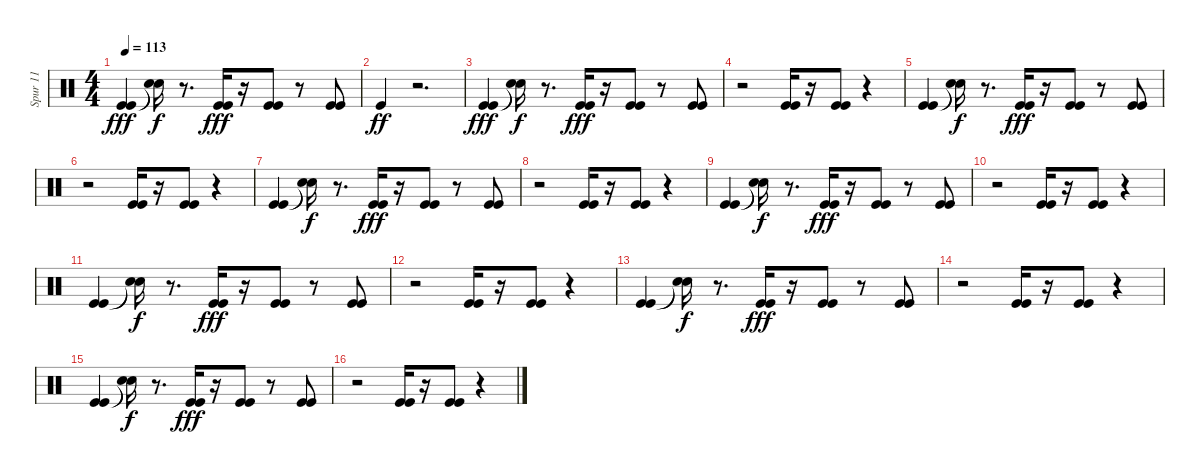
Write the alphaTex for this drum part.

\track ("Spur 11" "Spur 11") {instrument percussion}
\staff {score}
\articulation defaults
\ts (4 4)
\tempo 113
\clef neutral
\ks c
("Kick (hit)" "Kick (hit)").4{dy fff} ("Snare (hit)"{t} "Snare (hit)"{t}).16{dy f} r.8{d} ("Kick (hit)" "Kick (hit)").16{dy fff balance 8} r.16 ("Kick (hit)" "Kick (hit)").8 r.8 ("Kick (hit)" "Kick (hit)").8 |
"Kick (hit)".4{dy ff} r.2{d} |
("Kick (hit)" "Kick (hit)").4{dy fff} ("Snare (hit)"{t} "Snare (hit)"{t}).16{dy f} r.8{d} ("Kick (hit)" "Kick (hit)").16{dy fff volume 12} r.16 ("Kick (hit)" "Kick (hit)").8 r.8 ("Kick (hit)" "Kick (hit)").8 |
r.2 ("Kick (hit)" "Kick (hit)").16 r.16 ("Kick (hit)" "Kick (hit)").8 r.4 |
("Kick (hit)" "Kick (hit)").4 ("Snare (hit)"{t} "Snare (hit)"{t}).16{dy f} r.8{d} ("Kick (hit)" "Kick (hit)").16{dy fff} r.16 ("Kick (hit)" "Kick (hit)").8 r.8 ("Kick (hit)" "Kick (hit)").8 |
r.2 ("Kick (hit)" "Kick (hit)").16 r.16 ("Kick (hit)" "Kick (hit)").8{volume 13} r.4 |
("Kick (hit)" "Kick (hit)").4 ("Snare (hit)"{t} "Snare (hit)"{t}).16{dy f} r.8{d} ("Kick (hit)" "Kick (hit)").16{dy fff} r.16 ("Kick (hit)" "Kick (hit)").8 r.8 ("Kick (hit)" "Kick (hit)").8 |
r.2 ("Kick (hit)" "Kick (hit)").16 r.16 ("Kick (hit)" "Kick (hit)").8 r.4 |
("Kick (hit)" "Kick (hit)").4 ("Snare (hit)"{t} "Snare (hit)"{t}).16{dy f} r.8{d} ("Kick (hit)" "Kick (hit)").16{dy fff volume 13 balance 8} r.16 ("Kick (hit)" "Kick (hit)").8{volume 13} r.8 ("Kick (hit)" "Kick (hit)").8 |
r.2 ("Kick (hit)" "Kick (hit)").16{volume 13} r.16 ("Kick (hit)" "Kick (hit)").8 r.4 |
("Kick (hit)" "Kick (hit)").4 ("Snare (hit)"{t} "Snare (hit)"{t}).16{dy f} r.8{d} ("Kick (hit)" "Kick (hit)").16{dy fff volume 13} r.16 ("Kick (hit)" "Kick (hit)").8 r.8 ("Kick (hit)" "Kick (hit)").8{volume 12} |
r.2 ("Kick (hit)" "Kick (hit)").16{volume 12} r.16 ("Kick (hit)" "Kick (hit)").8 r.4 |
("Kick (hit)" "Kick (hit)").4{volume 12} ("Snare (hit)"{t} "Snare (hit)"{t}).16{dy f} r.8{d} ("Kick (hit)" "Kick (hit)").16{dy fff} r.16 ("Kick (hit)" "Kick (hit)").8 r.8 ("Kick (hit)" "Kick (hit)").8 |
r.2 ("Kick (hit)" "Kick (hit)").16 r.16 ("Kick (hit)" "Kick (hit)").8 r.4 |
("Kick (hit)" "Kick (hit)").4 ("Snare (hit)"{t} "Snare (hit)"{t}).16{dy f} r.8{d} ("Kick (hit)" "Kick (hit)").16{dy fff} r.16 ("Kick (hit)" "Kick (hit)").8 r.8 ("Kick (hit)" "Kick (hit)").8 |
r.2 ("Kick (hit)" "Kick (hit)").16 r.16 ("Kick (hit)" "Kick (hit)").8 r.4
